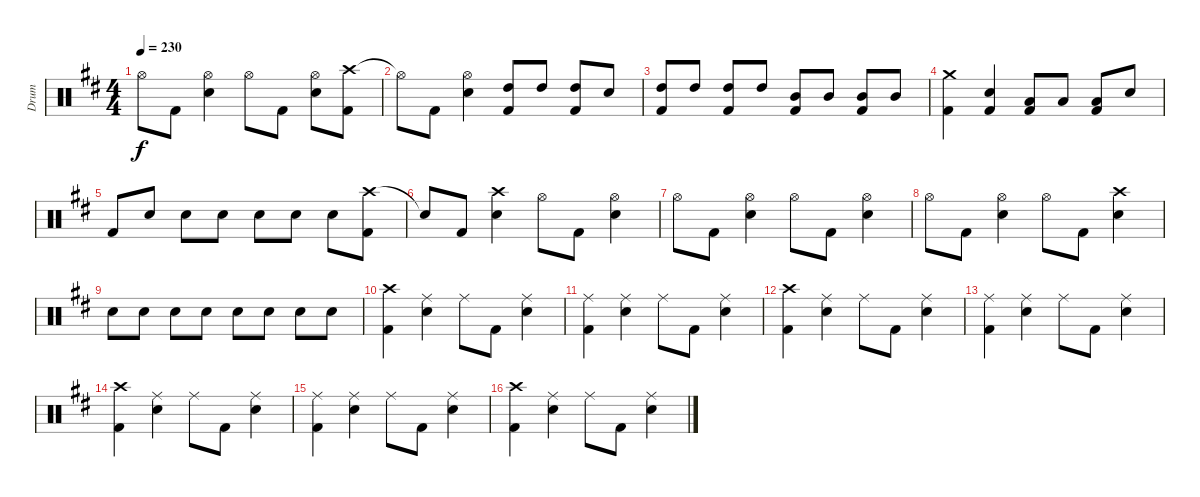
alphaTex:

\track ("Drum" "Drum") {instrument percussion}
\staff {score}
\articulation defaults
\ts (4 4)
\tempo 230
\clef neutral
\ks d "Hi-Hat (open)".8{dy f} "Kick (hit) 2".8
("Hi-Hat (open)" "Snare (hit) 2").4 "Hi-Hat (open)".8 "Kick (hit) 2".8 ("Hi-Hat (open)" "Snare (hit) 2").8 ("Crash high (hit)" "Kick (hit) 2").8 |
"Hi-Hat (open)"{t}.8 "Kick (hit) 2".8 ("Hi-Hat (open)" "Snare (hit) 2").4 ("High Tom (hit)" "Kick (hit) 2").8 "High Tom (hit)".8 ("High Tom (hit)" "Kick (hit) 2").8 "Snare (hit) 2".8 |
("High Tom (hit)" "Kick (hit) 2").8 "High Tom (hit)".8 ("High Tom (hit)" "Kick (hit) 2").8 "High Tom (hit)".8 ("Mid Tom (hit)" "Kick (hit) 2").8 "Mid Tom (hit)".8 ("Mid Tom (hit)" "Kick (hit) 2").8 "Mid Tom (hit)".8 |
("Crash medium (hit)" "Kick (hit) 2").4 ("Snare (hit) 2" "Kick (hit) 2").4 ("Low Tom (hit)" "Kick (hit) 2").8 "Low Tom (hit)".8 ("Low Tom (hit)" "Kick (hit) 2").8 "Snare (hit) 2".8 |
"Kick (hit) 2".8 "Snare (hit) 2".8 "Snare (hit) 2".8 "Snare (hit) 2".8 "Snare (hit) 2".8 "Snare (hit) 2".8 "Snare (hit) 2".8 ("Crash high (hit)" "Kick (hit) 2").8 |
"Snare (hit)"{t}.8 "Kick (hit) 2".8 ("Crash high (hit)" "Snare (hit) 2").4 "Hi-Hat (open)".8 "Kick (hit) 2".8 ("Hi-Hat (open)" "Snare (hit) 2").4 |
"Hi-Hat (open)".8 "Kick (hit) 2".8 ("Hi-Hat (open)" "Snare (hit) 2").4 "Hi-Hat (open)".8 "Kick (hit) 2".8 ("Hi-Hat (open)" "Snare (hit) 2").4 |
"Hi-Hat (open)".8 "Kick (hit) 2".8 ("Hi-Hat (open)" "Snare (hit) 2").4 "Hi-Hat (open)".8 "Kick (hit) 2".8 ("Crash high (hit)" "Snare (hit) 2").4 |
"Snare (hit) 2".8 "Snare (hit) 2".8 "Snare (hit) 2".8 "Snare (hit) 2".8 "Snare (hit) 2".8 "Snare (hit) 2".8 "Snare (hit) 2".8 "Snare (hit) 2".8 |
("Crash high (hit)" "Kick (hit) 2").4 ("Ride (middle)" "Snare (hit) 2").4 "Ride (middle)".8 "Kick (hit) 2".8 ("Ride (middle)" "Snare (hit) 2").4 |
("Ride (middle)" "Kick (hit) 2").4 ("Ride (middle)" "Snare (hit) 2").4 "Ride (middle)".8 "Kick (hit) 2".8 ("Ride (middle)" "Snare (hit) 2").4 |
("Crash high (hit)" "Kick (hit) 2").4 ("Ride (middle)" "Snare (hit) 2").4 "Ride (middle)".8 "Kick (hit) 2".8 ("Ride (middle)" "Snare (hit) 2").4 |
("Ride (middle)" "Kick (hit) 2").4 ("Ride (middle)" "Snare (hit) 2").4 "Ride (middle)".8 "Kick (hit) 2".8 ("Ride (middle)" "Snare (hit) 2").4 |
("Crash high (hit)" "Kick (hit) 2").4 ("Ride (middle)" "Snare (hit) 2").4 "Ride (middle)".8 "Kick (hit) 2".8 ("Ride (middle)" "Snare (hit) 2").4 |
("Ride (middle)" "Kick (hit) 2").4 ("Ride (middle)" "Snare (hit) 2").4 "Ride (middle)".8 "Kick (hit) 2".8 ("Ride (middle)" "Snare (hit) 2").4 |
("Crash high (hit)" "Kick (hit) 2").4 ("Ride (middle)" "Snare (hit) 2").4 "Ride (middle)".8 "Kick (hit) 2".8 ("Ride (middle)" "Snare (hit) 2").4
